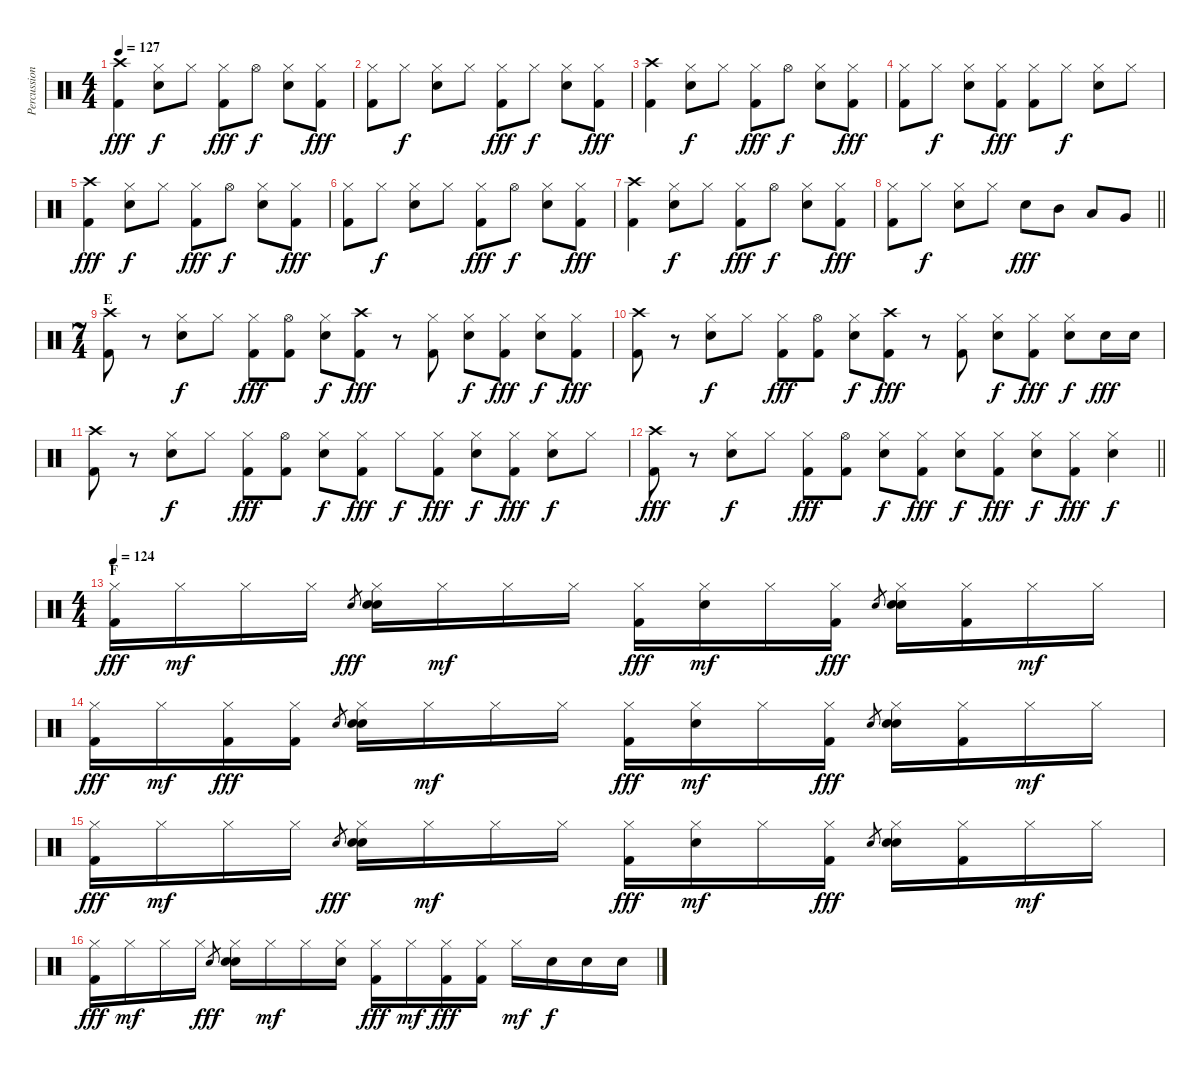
\track ("Percussion" "Percussion") {instrument percussion}
\staff {score}
\articulation defaults
\ts (4 4)
\tempo 127
\clef neutral
\ks c
("Crash high (hit)" "Kick (hit) 2").4{dy fff} ("Hi-Hat (closed)" "Electric Snare (hit)").8{dy f} "Hi-Hat (closed)".8 ("Hi-Hat (closed)" "Kick (hit) 2").8{dy fff} "Hi-Hat (open)".8{dy f} ("Hi-Hat (closed)" "Electric Snare (hit)").8 ("Hi-Hat (closed)" "Kick (hit) 2").8{dy fff} |
("Hi-Hat (closed)" "Kick (hit) 2").8 "Hi-Hat (closed)".8{dy f} ("Hi-Hat (closed)" "Electric Snare (hit)").8 "Hi-Hat (closed)".8 ("Hi-Hat (closed)" "Kick (hit) 2").8{dy fff} "Hi-Hat (closed)".8{dy f} ("Hi-Hat (closed)" "Electric Snare (hit)").8 ("Hi-Hat (closed)" "Kick (hit) 2").8{dy fff} |
("Crash high (hit)" "Kick (hit) 2").4 ("Hi-Hat (closed)" "Electric Snare (hit)").8{dy f} "Hi-Hat (closed)".8 ("Hi-Hat (closed)" "Kick (hit) 2").8{dy fff} "Hi-Hat (open)".8{dy f} ("Hi-Hat (closed)" "Electric Snare (hit)").8 ("Hi-Hat (closed)" "Kick (hit) 2").8{dy fff} |
("Hi-Hat (closed)" "Kick (hit) 2").8 "Hi-Hat (closed)".8{dy f} ("Hi-Hat (closed)" "Electric Snare (hit)").8 ("Hi-Hat (closed)" "Kick (hit) 2").8{dy fff} ("Hi-Hat (closed)" "Kick (hit) 2").8 "Hi-Hat (closed)".8{dy f} ("Hi-Hat (closed)" "Electric Snare (hit)").8 "Hi-Hat (closed)".8 |
("Crash high (hit)" "Kick (hit) 2").4{dy fff} ("Hi-Hat (closed)" "Electric Snare (hit)").8{dy f} "Hi-Hat (closed)".8 ("Hi-Hat (closed)" "Kick (hit) 2").8{dy fff} "Hi-Hat (open)".8{dy f} ("Hi-Hat (closed)" "Electric Snare (hit)").8 ("Hi-Hat (closed)" "Kick (hit) 2").8{dy fff} |
("Hi-Hat (closed)" "Kick (hit) 2").8 "Hi-Hat (closed)".8{dy f} ("Hi-Hat (closed)" "Electric Snare (hit)").8 "Hi-Hat (closed)".8 ("Hi-Hat (closed)" "Kick (hit) 2").8{dy fff} "Hi-Hat (open)".8{dy f} ("Hi-Hat (closed)" "Electric Snare (hit)").8 ("Hi-Hat (closed)" "Kick (hit) 2").8{dy fff} |
("Crash high (hit)" "Kick (hit) 2").4 ("Hi-Hat (closed)" "Electric Snare (hit)").8{dy f} "Hi-Hat (closed)".8 ("Hi-Hat (closed)" "Kick (hit) 2").8{dy fff} "Hi-Hat (open)".8{dy f} ("Hi-Hat (closed)" "Electric Snare (hit)").8 ("Hi-Hat (closed)" "Kick (hit) 2").8{dy fff} |
\barLineRight lightlight
("Hi-Hat (closed)" "Kick (hit) 2").8 "Hi-Hat (closed)".8{dy f} ("Hi-Hat (closed)" "Electric Snare (hit)").8 "Hi-Hat (closed)".8 "Electric Snare (hit)".8{dy fff} "Mid Tom (hit)".8 "Low Tom (hit)".8 "Very Low Tom (hit)".8 |
\ts (7 4)
\section ("" "E")
("Crash high (hit)" "Kick (hit) 2").8 r.8 ("Hi-Hat (closed)" "Electric Snare (hit)").8{dy f} "Hi-Hat (closed)".8 ("Hi-Hat (closed)" "Kick (hit) 2").8{dy fff} ("Hi-Hat (open)" "Kick (hit) 2").8 ("Hi-Hat (closed)" "Electric Snare (hit)").8{dy f} ("Crash high (hit)" "Kick (hit) 2").8{dy fff} r.8 ("Hi-Hat (closed)" "Kick (hit) 2").8 ("Hi-Hat (closed)" "Electric Snare (hit)").8{dy f} ("Hi-Hat (closed)" "Kick (hit) 2").8{dy fff} ("Hi-Hat (closed)" "Electric Snare (hit)").8{dy f} ("Hi-Hat (closed)" "Kick (hit) 2").8{dy fff} |
("Crash high (hit)" "Kick (hit) 2").8 r.8 ("Hi-Hat (closed)" "Electric Snare (hit)").8{dy f} "Hi-Hat (closed)".8 ("Hi-Hat (closed)" "Kick (hit) 2").8{dy fff} ("Hi-Hat (open)" "Kick (hit) 2").8 ("Hi-Hat (closed)" "Electric Snare (hit)").8{dy f} ("Crash high (hit)" "Kick (hit) 2").8{dy fff} r.8 ("Hi-Hat (closed)" "Kick (hit) 2").8 ("Hi-Hat (closed)" "Electric Snare (hit)").8{dy f} ("Hi-Hat (closed)" "Kick (hit) 2").8{dy fff} ("Hi-Hat (closed)" "Electric Snare (hit)").8{dy f} "Electric Snare (hit)".16{dy fff} "Electric Snare (hit)".16 |
("Crash high (hit)" "Kick (hit) 2").8 r.8 ("Hi-Hat (closed)" "Electric Snare (hit)").8{dy f} "Hi-Hat (closed)".8 ("Hi-Hat (closed)" "Kick (hit) 2").8{dy fff} ("Hi-Hat (open)" "Kick (hit) 2").8 ("Hi-Hat (closed)" "Electric Snare (hit)").8{dy f} ("Hi-Hat (closed)" "Kick (hit) 2").8{dy fff} "Hi-Hat (closed)".8{dy f} ("Hi-Hat (closed)" "Kick (hit) 2").8{dy fff} ("Hi-Hat (closed)" "Electric Snare (hit)").8{dy f} ("Hi-Hat (closed)" "Kick (hit) 2").8{dy fff} ("Hi-Hat (closed)" "Electric Snare (hit)").8{dy f} "Hi-Hat (closed)".8 |
\barLineRight lightlight
("Crash high (hit)" "Kick (hit) 2").8{dy fff} r.8 ("Hi-Hat (closed)" "Electric Snare (hit)").8{dy f} "Hi-Hat (closed)".8 ("Hi-Hat (closed)" "Kick (hit) 2").8{dy fff} ("Hi-Hat (open)" "Kick (hit) 2").8 ("Hi-Hat (closed)" "Electric Snare (hit)").8{dy f} ("Hi-Hat (closed)" "Kick (hit) 2").8{dy fff} ("Hi-Hat (closed)" "Electric Snare (hit)").8{dy f} ("Hi-Hat (closed)" "Kick (hit) 2").8{dy fff} ("Hi-Hat (closed)" "Electric Snare (hit)").8{dy f} ("Hi-Hat (closed)" "Kick (hit) 2").8{dy fff} ("Hi-Hat (closed)" "Electric Snare (hit)").4{dy f} |
\ts (4 4)
\section ("" "F")
\tempo 124
("Hi-Hat (closed)" "Kick (hit) 2").16{dy fff volume 13} "Hi-Hat (closed)".16{dy mf} "Hi-Hat (closed)".16 "Hi-Hat (closed)".16 "Hand Clap (hit)".8{gr dy fff} ("Hi-Hat (closed)" "Hand Clap (hit)" "Snare (hit) 2").16 "Hi-Hat (closed)".16{dy mf} "Hi-Hat (closed)".16 "Hi-Hat (closed)".16 ("Hi-Hat (closed)" "Kick (hit) 2").16{dy fff} ("Hi-Hat (closed)" "Snare (hit) 2").16{dy mf} "Hi-Hat (closed)".16 ("Hi-Hat (closed)" "Kick (hit) 2").16{dy fff} "Hand Clap (hit)".8{gr} ("Hi-Hat (closed)" "Hand Clap (hit)" "Snare (hit) 2").16 ("Hi-Hat (closed)" "Kick (hit) 2").16 "Hi-Hat (closed)".16{dy mf} "Hi-Hat (closed)".16 |
("Hi-Hat (closed)" "Kick (hit) 2").16{dy fff} "Hi-Hat (closed)".16{dy mf} ("Hi-Hat (closed)" "Kick (hit) 2").16{dy fff} ("Hi-Hat (closed)" "Kick (hit) 2").16 "Hand Clap (hit)".8{gr} ("Hi-Hat (closed)" "Hand Clap (hit)" "Snare (hit) 2").16 "Hi-Hat (closed)".16{dy mf} "Hi-Hat (closed)".16 "Hi-Hat (closed)".16 ("Hi-Hat (closed)" "Kick (hit) 2").16{dy fff} ("Hi-Hat (closed)" "Snare (hit) 2").16{dy mf} "Hi-Hat (closed)".16 ("Hi-Hat (closed)" "Kick (hit) 2").16{dy fff} "Hand Clap (hit)".8{gr} ("Hi-Hat (closed)" "Hand Clap (hit)" "Snare (hit) 2").16 ("Hi-Hat (closed)" "Kick (hit) 2").16 "Hi-Hat (closed)".16{dy mf} "Hi-Hat (closed)".16 |
("Hi-Hat (closed)" "Kick (hit) 2").16{dy fff} "Hi-Hat (closed)".16{dy mf} "Hi-Hat (closed)".16 "Hi-Hat (closed)".16 "Hand Clap (hit)".8{gr dy fff} ("Hi-Hat (closed)" "Hand Clap (hit)" "Snare (hit) 2").16 "Hi-Hat (closed)".16{dy mf} "Hi-Hat (closed)".16 "Hi-Hat (closed)".16 ("Hi-Hat (closed)" "Kick (hit) 2").16{dy fff} ("Hi-Hat (closed)" "Snare (hit) 2").16{dy mf} "Hi-Hat (closed)".16 ("Hi-Hat (closed)" "Kick (hit) 2").16{dy fff} "Hand Clap (hit)".8{gr} ("Hi-Hat (closed)" "Hand Clap (hit)" "Snare (hit) 2").16 ("Hi-Hat (closed)" "Kick (hit) 2").16 "Hi-Hat (closed)".16{dy mf} "Hi-Hat (closed)".16 |
("Hi-Hat (closed)" "Kick (hit) 2").16{dy fff} "Hi-Hat (closed)".16{dy mf} "Hi-Hat (closed)".16 "Hi-Hat (closed)".16 "Hand Clap (hit)".8{gr dy fff} ("Hi-Hat (closed)" "Hand Clap (hit)" "Snare (hit) 2").16 "Hi-Hat (closed)".16{dy mf} "Hi-Hat (closed)".16 ("Hi-Hat (closed)" "Snare (hit) 2").16 ("Hi-Hat (closed)" "Kick (hit) 2").16{dy fff} "Hi-Hat (closed)".16{dy mf} ("Hi-Hat (closed)" "Kick (hit) 2").16{dy fff} ("Hi-Hat (closed)" "Kick (hit) 2").16 "Hi-Hat (closed)".16{dy mf} "Snare (hit) 2".16{dy f} "Snare (hit) 2".16 "Snare (hit) 2".16
